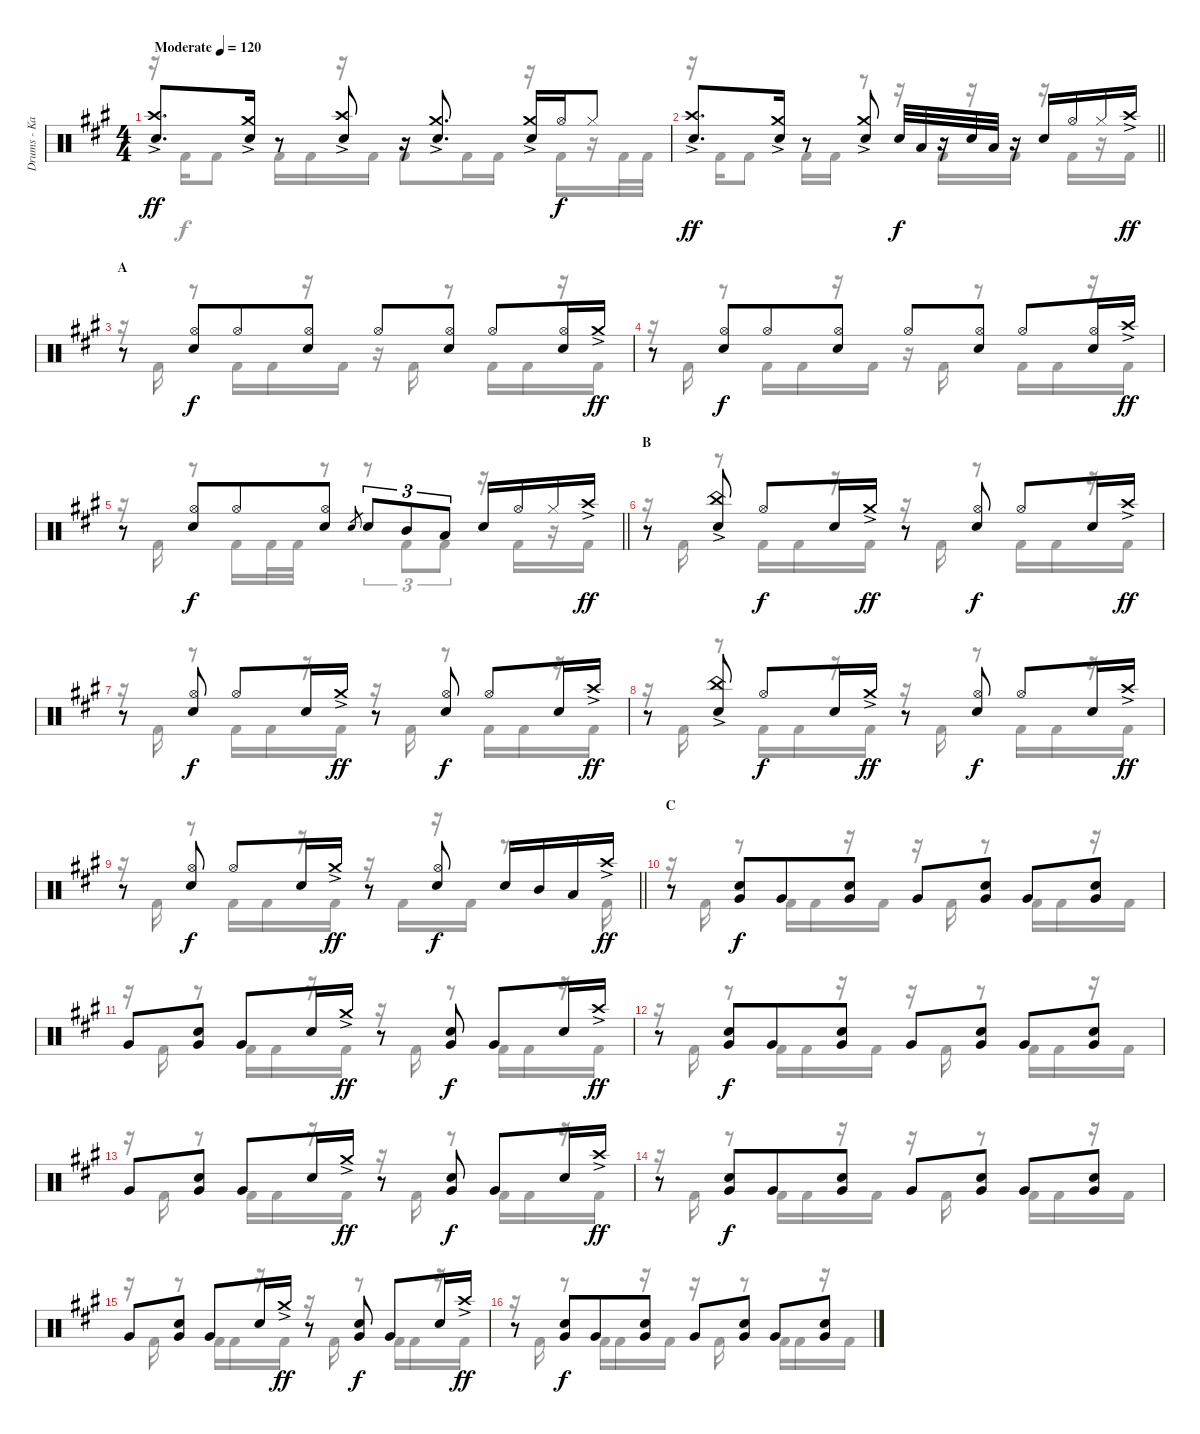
\track ("Drums - Kai" "Drums - Ka") {instrument percussion}
\staff {score}
\articulation defaults
\voice
\ts (4 4)
\tempo (120 "Moderate")
\clef neutral
\ks a
("Crash high (hit)"{ac} "Snare (hit) 2").8{d dy ff} ("Crash medium (hit)"{ac} "Snare (hit) 2").16 r.8 ("Crash high (hit)"{ac} "Snare (hit) 2").8 r.16 ("Crash medium (hit)"{ac} "Snare (hit) 2").8{d} ("Crash medium (hit)"{ac} "Snare (hit) 2").16 "Hi-Hat (open)".16{dy f} "Hi-Hat (closed)".8 |
\barLineRight lightlight
("Crash high (hit)"{ac} "Snare (hit) 2").8{d dy ff} ("Crash medium (hit)"{ac} "Snare (hit) 2").16 r.8 ("Crash medium (hit)"{ac} "Snare (hit) 2").8 "Snare (hit) 2".32{dy f} "Low Tom (hit)".32 r.16 "Snare (hit) 2".32 "Low Tom (hit)".32 r.16 "Snare (hit) 2".16 "Hi-Hat (open)".16 "Hi-Hat (closed)".16 "Crash high (hit)"{ac}.16{dy ff} |
\section ("" "A")
r.8 ("Hi-Hat (open)" "Snare (hit) 2").8{dy f beam merge} "Hi-Hat (open)".8 ("Hi-Hat (open)" "Snare (hit) 2").8 "Hi-Hat (open)".8 ("Hi-Hat (open)" "Snare (hit) 2").8 "Hi-Hat (open)".8 ("Hi-Hat (open)" "Snare (hit) 2").16 "Crash medium (hit)"{ac}.16{dy ff} |
r.8 ("Hi-Hat (open)" "Snare (hit) 2").8{dy f beam merge} "Hi-Hat (open)".8 ("Hi-Hat (open)" "Snare (hit) 2").8 "Hi-Hat (open)".8 ("Hi-Hat (open)" "Snare (hit) 2").8 "Hi-Hat (open)".8 ("Hi-Hat (open)" "Snare (hit) 2").16 "Crash high (hit)"{ac}.16{dy ff} |
\barLineRight lightlight
r.8 ("Hi-Hat (open)" "Snare (hit) 2").8{dy f beam merge} "Hi-Hat (open)".8 ("Hi-Hat (open)" "Snare (hit) 2").8 "Snare (hit) 2".8{gr} "Snare (hit) 2".8{tu (3 2)} "Mid Tom (hit)".8{tu (3 2)} "Low Tom (hit)".8{tu (3 2)} "Snare (hit) 2".16 "Hi-Hat (open)".16 "Hi-Hat (closed)".16 "Crash high (hit)"{ac}.16{dy ff} |
\section ("" "B")
r.8 ("China (hit)"{ac} "Snare (hit) 2").8 "Hi-Hat (open)".8{dy f} "Snare (hit) 2".16 "Crash medium (hit)"{ac}.16{dy ff} r.8 ("Hi-Hat (open)" "Snare (hit) 2").8{dy f} "Hi-Hat (open)".8 "Snare (hit) 2".16 "Crash high (hit)"{ac}.16{dy ff} |
r.8 ("Hi-Hat (open)" "Snare (hit) 2").8{dy f} "Hi-Hat (open)".8 "Snare (hit) 2".16 "Crash medium (hit)"{ac}.16{dy ff} r.8 ("Hi-Hat (open)" "Snare (hit) 2").8{dy f} "Hi-Hat (open)".8 "Snare (hit) 2".16 "Crash high (hit)"{ac}.16{dy ff} |
r.8 ("China (hit)"{ac} "Snare (hit) 2").8 "Hi-Hat (open)".8{dy f} "Snare (hit) 2".16 "Crash medium (hit)"{ac}.16{dy ff} r.8 ("Hi-Hat (open)" "Snare (hit) 2").8{dy f} "Hi-Hat (open)".8 "Snare (hit) 2".16 "Crash high (hit)"{ac}.16{dy ff} |
\barLineRight lightlight
r.8 ("Hi-Hat (open)" "Snare (hit) 2").8{dy f} "Hi-Hat (open)".8 "Snare (hit) 2".16 "Crash medium (hit)"{ac}.16{dy ff} r.8 ("Hi-Hat (open)" "Snare (hit) 2").8{dy f} "Snare (hit) 2".16 "Mid Tom (hit)".16 "Low Tom (hit)".16 "Crash high (hit)"{ac}.16{dy ff} |
\section ("" "C")
r.8 ("Very Low Tom (hit)" "Snare (hit) 2").8{dy f beam merge} "Very Low Tom (hit)".8 ("Very Low Tom (hit)" "Snare (hit) 2").8 "Very Low Tom (hit)".8 ("Very Low Tom (hit)" "Snare (hit) 2").8 "Very Low Tom (hit)".8 ("Very Low Tom (hit)" "Snare (hit) 2").8 |
"Very Low Tom (hit)".8 ("Very Low Tom (hit)" "Snare (hit) 2").8 "Very Low Tom (hit)".8 "Snare (hit) 2".16 "Crash medium (hit)"{ac}.16{dy ff} r.8 ("Very Low Tom (hit)" "Snare (hit) 2").8{dy f} "Very Low Tom (hit)".8 "Snare (hit) 2".16 "Crash high (hit)"{ac}.16{dy ff} |
r.8 ("Very Low Tom (hit)" "Snare (hit) 2").8{dy f beam merge} "Very Low Tom (hit)".8 ("Very Low Tom (hit)" "Snare (hit) 2").8 "Very Low Tom (hit)".8 ("Very Low Tom (hit)" "Snare (hit) 2").8 "Very Low Tom (hit)".8 ("Very Low Tom (hit)" "Snare (hit) 2").8 |
"Very Low Tom (hit)".8 ("Very Low Tom (hit)" "Snare (hit) 2").8 "Very Low Tom (hit)".8 "Snare (hit) 2".16 "Crash medium (hit)"{ac}.16{dy ff} r.8 ("Very Low Tom (hit)" "Snare (hit) 2").8{dy f} "Very Low Tom (hit)".8 "Snare (hit) 2".16 "Crash high (hit)"{ac}.16{dy ff} |
r.8 ("Very Low Tom (hit)" "Snare (hit) 2").8{dy f beam merge} "Very Low Tom (hit)".8 ("Very Low Tom (hit)" "Snare (hit) 2").8 "Very Low Tom (hit)".8 ("Very Low Tom (hit)" "Snare (hit) 2").8 "Very Low Tom (hit)".8 ("Very Low Tom (hit)" "Snare (hit) 2").8 |
"Very Low Tom (hit)".8 ("Very Low Tom (hit)" "Snare (hit) 2").8 "Very Low Tom (hit)".8 "Snare (hit) 2".16 "Crash medium (hit)"{ac}.16{dy ff} r.8 ("Very Low Tom (hit)" "Snare (hit) 2").8{dy f} "Very Low Tom (hit)".8 "Snare (hit) 2".16 "Crash high (hit)"{ac}.16{dy ff} |
r.8 ("Very Low Tom (hit)" "Snare (hit) 2").8{dy f beam merge} "Very Low Tom (hit)".8 ("Very Low Tom (hit)" "Snare (hit) 2").8 "Very Low Tom (hit)".8 ("Very Low Tom (hit)" "Snare (hit) 2").8 "Very Low Tom (hit)".8 ("Very Low Tom (hit)" "Snare (hit) 2").8
\voice
\clef neutral
\ottava regular
\simile none
\ks a
r.16{dy f} "Kick (hit) 2".16 "Kick (hit) 2".8 "Kick (hit) 2".16 "Kick (hit) 2".16 r.16 "Kick (hit) 2".16 "Kick (hit) 2".8 "Kick (hit) 2".16 "Kick (hit) 2".16 r.16 "Kick (hit) 2".16 r.16 "Kick (hit) 2".32 "Kick (hit) 2".32 |
\barLineRight lightlight
r.16 "Kick (hit) 2".16 "Kick (hit) 2".8 "Kick (hit) 2".16 "Kick (hit) 2".16 r.8 r.16 "Kick (hit) 2".16 r.16 "Kick (hit) 2".16 r.16 "Kick (hit) 2".16 r.16 "Kick (hit) 2".16 |
r.16 "Kick (hit) 2".16 r.8 "Kick (hit) 2".16 "Kick (hit) 2".16 r.16 "Kick (hit) 2".16 r.16 "Kick (hit) 2".16 r.8 "Kick (hit) 2".16 "Kick (hit) 2".16 r.16 "Kick (hit) 2".16 |
r.16 "Kick (hit) 2".16 r.8 "Kick (hit) 2".16 "Kick (hit) 2".16 r.16 "Kick (hit) 2".16 r.16 "Kick (hit) 2".16 r.8 "Kick (hit) 2".16 "Kick (hit) 2".16 r.16 "Kick (hit) 2".16 |
\barLineRight lightlight
r.16 "Kick (hit) 2".16 r.8 "Kick (hit) 2".16 "Kick (hit) 2".32 "Kick (hit) 2".32 r.8 r.8{tu (3 2)} "Kick (hit) 2".8{tu (3 2)} "Kick (hit) 2".8{tu (3 2)} r.16 "Kick (hit) 2".16 r.16 "Kick (hit) 2".16 |
r.16 "Kick (hit) 2".16 r.8 "Kick (hit) 2".16 "Kick (hit) 2".16 r.16 "Kick (hit) 2".16 r.16 "Kick (hit) 2".16 r.8 "Kick (hit) 2".16 "Kick (hit) 2".16 r.16 "Kick (hit) 2".16 |
r.16 "Kick (hit) 2".16 r.8 "Kick (hit) 2".16 "Kick (hit) 2".16 r.16 "Kick (hit) 2".16 r.16 "Kick (hit) 2".16 r.8 "Kick (hit) 2".16 "Kick (hit) 2".16 r.16 "Kick (hit) 2".16 |
r.16 "Kick (hit) 2".16 r.8 "Kick (hit) 2".16 "Kick (hit) 2".16 r.16 "Kick (hit) 2".16 r.16 "Kick (hit) 2".16 r.8 "Kick (hit) 2".16 "Kick (hit) 2".16 r.16 "Kick (hit) 2".16 |
\barLineRight lightlight
r.16 "Kick (hit) 2".16 r.8 "Kick (hit) 2".16 "Kick (hit) 2".16 r.16 "Kick (hit) 2".16 r.16 "Kick (hit) 2".16 r.16 "Kick (hit) 2".16 r.8{d} "Kick (hit) 2".16 |
r.16 "Kick (hit) 2".16 r.8 "Kick (hit) 2".16 "Kick (hit) 2".16 r.16 "Kick (hit) 2".16 r.16 "Kick (hit) 2".16 r.8 "Kick (hit) 2".16 "Kick (hit) 2".16 r.16 "Kick (hit) 2".16 |
r.16 "Kick (hit) 2".16 r.8 "Kick (hit) 2".16 "Kick (hit) 2".16 r.16 "Kick (hit) 2".16 r.16 "Kick (hit) 2".16 r.8 "Kick (hit) 2".16 "Kick (hit) 2".16 r.16 "Kick (hit) 2".16 |
r.16 "Kick (hit) 2".16 r.8 "Kick (hit) 2".16 "Kick (hit) 2".16 r.16 "Kick (hit) 2".16 r.16 "Kick (hit) 2".16 r.8 "Kick (hit) 2".16 "Kick (hit) 2".16 r.16 "Kick (hit) 2".16 |
r.16 "Kick (hit) 2".16 r.8 "Kick (hit) 2".16 "Kick (hit) 2".16 r.16 "Kick (hit) 2".16 r.16 "Kick (hit) 2".16 r.8 "Kick (hit) 2".16 "Kick (hit) 2".16 r.16 "Kick (hit) 2".16 |
r.16 "Kick (hit) 2".16 r.8 "Kick (hit) 2".16 "Kick (hit) 2".16 r.16 "Kick (hit) 2".16 r.16 "Kick (hit) 2".16 r.8 "Kick (hit) 2".16 "Kick (hit) 2".16 r.16 "Kick (hit) 2".16 |
r.16 "Kick (hit) 2".16 r.8 "Kick (hit) 2".16 "Kick (hit) 2".16 r.16 "Kick (hit) 2".16 r.16 "Kick (hit) 2".16 r.8 "Kick (hit) 2".16 "Kick (hit) 2".16 r.16 "Kick (hit) 2".16 |
r.16 "Kick (hit) 2".16 r.8 "Kick (hit) 2".16 "Kick (hit) 2".16 r.16 "Kick (hit) 2".16 r.16 "Kick (hit) 2".16 r.8 "Kick (hit) 2".16 "Kick (hit) 2".16 r.16 "Kick (hit) 2".16
